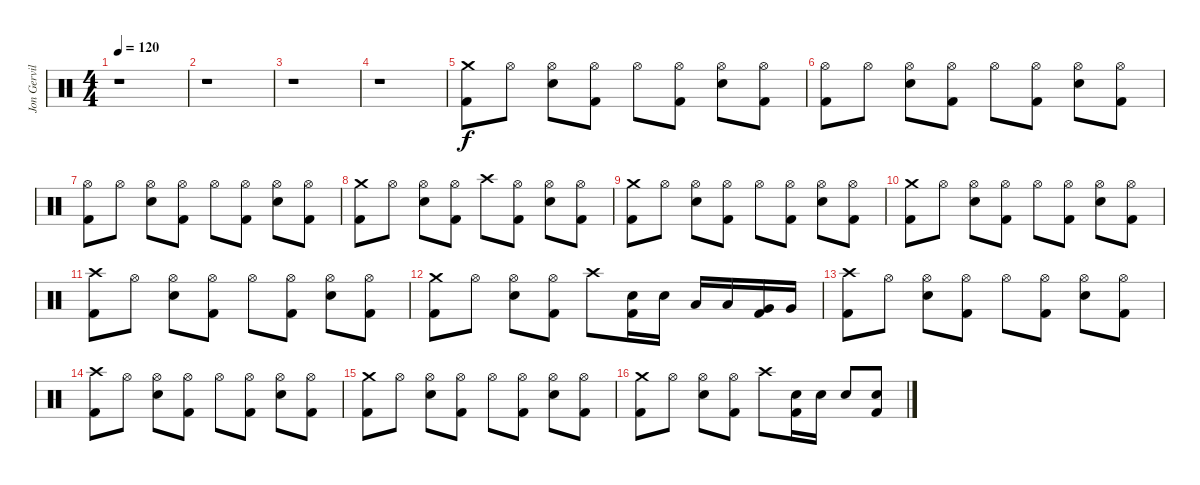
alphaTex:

\track ("Jon Gerville (Drums)" "Jon Gervil") {instrument percussion}
\staff {score}
\articulation defaults
\ts (4 4)
\tempo 120
\clef neutral
\ks c
r.1{dy f} |
r.1 |
r.1 |
r.1 |
("Crash medium (hit)" "Kick (hit) 2").8 "Hi-Hat (open)".8 ("Hi-Hat (open)" "Electric Snare (hit)").8 ("Hi-Hat (open)" "Kick (hit) 2").8 "Hi-Hat (open)".8 ("Hi-Hat (open)" "Kick (hit) 2").8 ("Hi-Hat (open)" "Electric Snare (hit)").8 ("Hi-Hat (open)" "Kick (hit) 2").8 |
("Hi-Hat (open)" "Kick (hit) 2").8 "Hi-Hat (open)".8 ("Hi-Hat (open)" "Electric Snare (hit)").8 ("Hi-Hat (open)" "Kick (hit) 2").8 "Hi-Hat (open)".8 ("Hi-Hat (open)" "Kick (hit) 2").8 ("Hi-Hat (open)" "Electric Snare (hit)").8 ("Hi-Hat (open)" "Kick (hit) 2").8 |
("Hi-Hat (open)" "Kick (hit) 2").8 "Hi-Hat (open)".8 ("Hi-Hat (open)" "Electric Snare (hit)").8 ("Hi-Hat (open)" "Kick (hit) 2").8 "Hi-Hat (open)".8 ("Hi-Hat (open)" "Kick (hit) 2").8 ("Hi-Hat (open)" "Electric Snare (hit)").8 ("Hi-Hat (open)" "Kick (hit) 2").8 |
("Crash medium (hit)" "Kick (hit) 2").8 "Hi-Hat (open)".8 ("Hi-Hat (open)" "Electric Snare (hit)").8 ("Hi-Hat (open)" "Kick (hit) 2").8 "Crash high (hit)".8 ("Hi-Hat (open)" "Kick (hit) 2").8 ("Hi-Hat (open)" "Electric Snare (hit)").8 ("Hi-Hat (open)" "Kick (hit) 2").8 |
("Crash medium (hit)" "Kick (hit) 2").8 "Hi-Hat (open)".8 ("Hi-Hat (open)" "Electric Snare (hit)").8 ("Hi-Hat (open)" "Kick (hit) 2").8 "Hi-Hat (open)".8 ("Hi-Hat (open)" "Kick (hit) 2").8 ("Hi-Hat (open)" "Electric Snare (hit)").8 ("Hi-Hat (open)" "Kick (hit) 2").8 |
("Crash medium (hit)" "Kick (hit) 2").8 "Hi-Hat (open)".8 ("Hi-Hat (open)" "Electric Snare (hit)").8 ("Hi-Hat (open)" "Kick (hit) 2").8 "Hi-Hat (open)".8 ("Hi-Hat (open)" "Kick (hit) 2").8 ("Hi-Hat (open)" "Electric Snare (hit)").8 ("Hi-Hat (open)" "Kick (hit) 2").8 |
("Crash high (hit)" "Kick (hit) 2").8 "Hi-Hat (open)".8 ("Hi-Hat (open)" "Electric Snare (hit)").8 ("Hi-Hat (open)" "Kick (hit) 2").8 "Hi-Hat (open)".8 ("Hi-Hat (open)" "Kick (hit) 2").8 ("Hi-Hat (open)" "Electric Snare (hit)").8 ("Hi-Hat (open)" "Kick (hit) 2").8 |
("Crash medium (hit)" "Kick (hit) 2").8 "Hi-Hat (open)".8 ("Hi-Hat (open)" "Electric Snare (hit)").8 ("Hi-Hat (open)" "Kick (hit) 2").8 "Crash high (hit)".8 ("Electric Snare (hit)" "Kick (hit) 2").16 "Electric Snare (hit)".16 "Low Tom (hit)".16 "Low Tom (hit)".16 ("Very Low Tom (hit)" "Kick (hit) 2").16 "Very Low Tom (hit)".16 |
("Crash high (hit)" "Kick (hit) 2").8 "Hi-Hat (open)".8 ("Hi-Hat (open)" "Electric Snare (hit)").8 ("Hi-Hat (open)" "Kick (hit) 2").8 "Hi-Hat (open)".8 ("Hi-Hat (open)" "Kick (hit) 2").8 ("Hi-Hat (open)" "Electric Snare (hit)").8 ("Hi-Hat (open)" "Kick (hit) 2").8 |
("Crash high (hit)" "Kick (hit) 2").8 "Hi-Hat (open)".8 ("Hi-Hat (open)" "Electric Snare (hit)").8 ("Hi-Hat (open)" "Kick (hit) 2").8 "Hi-Hat (open)".8 ("Hi-Hat (open)" "Kick (hit) 2").8 ("Hi-Hat (open)" "Electric Snare (hit)").8 ("Hi-Hat (open)" "Kick (hit) 2").8 |
("Crash medium (hit)" "Kick (hit) 2").8 "Hi-Hat (open)".8 ("Hi-Hat (open)" "Electric Snare (hit)").8 ("Hi-Hat (open)" "Kick (hit) 2").8 "Hi-Hat (open)".8 ("Hi-Hat (open)" "Kick (hit) 2").8 ("Hi-Hat (open)" "Electric Snare (hit)").8 ("Hi-Hat (open)" "Kick (hit) 2").8 |
("Crash medium (hit)" "Kick (hit) 2").8 "Hi-Hat (open)".8 ("Hi-Hat (open)" "Electric Snare (hit)").8 ("Hi-Hat (open)" "Kick (hit) 2").8 "Crash high (hit)".8 ("Electric Snare (hit)" "Kick (hit) 2").16 "Electric Snare (hit)".16 "Electric Snare (hit)".8 ("Electric Snare (hit)" "Kick (hit) 2").8
